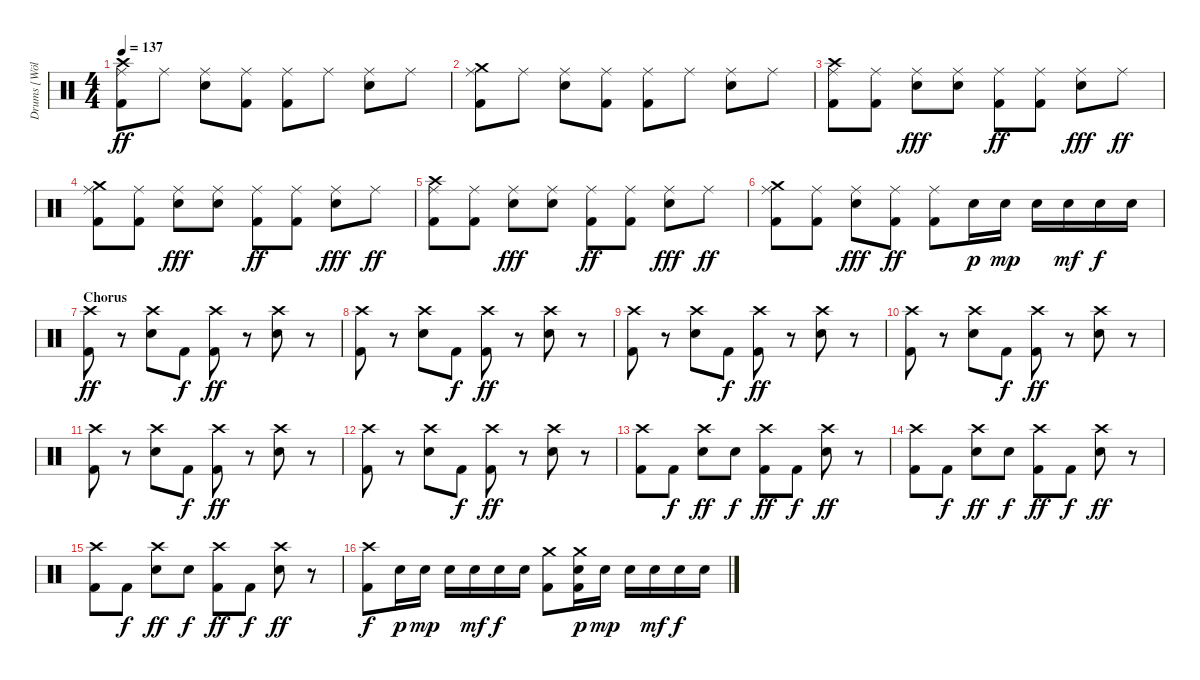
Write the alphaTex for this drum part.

\track ("Drums [Wölli]" "Drums [Wöl") {instrument percussion}
\staff {score}
\articulation defaults
\ts (4 4)
\tempo 137
\clef neutral
\ks c
("Ride (middle)" "Kick (hit) 2" "Crash high (hit)").8{dy ff} "Ride (middle)".8 ("Ride (middle)" "Snare (hit) 2").8 ("Ride (middle)" "Kick (hit) 2").8 ("Ride (middle)" "Kick (hit) 2").8 "Ride (middle)".8 ("Ride (middle)" "Snare (hit) 2").8 "Ride (middle)".8 |
("Ride (middle)" "Kick (hit) 2" "Crash medium (hit)").8 "Ride (middle)".8 ("Ride (middle)" "Snare (hit) 2").8 ("Ride (middle)" "Kick (hit) 2").8 ("Ride (middle)" "Kick (hit) 2").8 "Ride (middle)".8 ("Ride (middle)" "Snare (hit) 2").8 "Ride (middle)".8 |
("Ride (middle)" "Kick (hit) 2" "Crash high (hit)").8 ("Ride (middle)" "Kick (hit) 2").8 ("Ride (middle)" "Snare (hit) 2").8{dy fff} ("Ride (middle)" "Snare (hit) 2").8 ("Ride (middle)" "Kick (hit) 2").8{dy ff} ("Ride (middle)" "Kick (hit) 2").8 ("Ride (middle)" "Snare (hit) 2").8{dy fff} "Ride (middle)".8{dy ff} |
("Ride (middle)" "Kick (hit) 2" "Crash medium (hit)").8 ("Ride (middle)" "Kick (hit) 2").8 ("Ride (middle)" "Snare (hit) 2").8{dy fff} ("Ride (middle)" "Snare (hit) 2").8 ("Ride (middle)" "Kick (hit) 2").8{dy ff} ("Ride (middle)" "Kick (hit) 2").8 ("Ride (middle)" "Snare (hit) 2").8{dy fff} "Ride (middle)".8{dy ff} |
("Ride (middle)" "Kick (hit) 2" "Crash high (hit)").8 ("Ride (middle)" "Kick (hit) 2").8 ("Ride (middle)" "Snare (hit) 2").8{dy fff} ("Ride (middle)" "Snare (hit) 2").8 ("Ride (middle)" "Kick (hit) 2").8{dy ff} ("Ride (middle)" "Kick (hit) 2").8 ("Ride (middle)" "Snare (hit) 2").8{dy fff} "Ride (middle)".8{dy ff} |
("Ride (middle)" "Kick (hit) 2" "Crash medium (hit)").8 ("Ride (middle)" "Kick (hit) 2").8 ("Ride (middle)" "Snare (hit) 2").8{dy fff} ("Ride (middle)" "Kick (hit) 2").8{dy ff} ("Ride (middle)" "Kick (hit) 2").8 "Snare (hit) 2".16{dy p} "Snare (hit) 2".16{dy mp} "Snare (hit) 2".16 "Snare (hit) 2".16{dy mf} "Snare (hit) 2".16{dy f} "Snare (hit) 2".16 |
\section ("" "Chorus")
("Crash high (hit)" "Kick (hit) 2").8{dy ff} r.8 ("Crash high (hit)" "Snare (hit) 2").8 "Kick (hit) 2".8{dy f} ("Crash high (hit)" "Kick (hit) 2").8{dy ff} r.8 ("Crash high (hit)" "Snare (hit) 2").8 r.8 |
("Crash high (hit)" "Kick (hit) 2").8 r.8 ("Crash high (hit)" "Snare (hit) 2").8 "Kick (hit) 2".8{dy f} ("Crash high (hit)" "Kick (hit) 2").8{dy ff} r.8 ("Crash high (hit)" "Snare (hit) 2").8 r.8 |
("Crash high (hit)" "Kick (hit) 2").8 r.8 ("Crash high (hit)" "Snare (hit) 2").8 "Kick (hit) 2".8{dy f} ("Crash high (hit)" "Kick (hit) 2").8{dy ff} r.8 ("Crash high (hit)" "Snare (hit) 2").8 r.8 |
("Crash high (hit)" "Kick (hit) 2").8 r.8 ("Crash high (hit)" "Snare (hit) 2").8 "Kick (hit) 2".8{dy f} ("Crash high (hit)" "Kick (hit) 2").8{dy ff} r.8 ("Crash high (hit)" "Snare (hit) 2").8 r.8 |
("Crash high (hit)" "Kick (hit) 2").8 r.8 ("Crash high (hit)" "Snare (hit) 2").8 "Kick (hit) 2".8{dy f} ("Crash high (hit)" "Kick (hit) 2").8{dy ff} r.8 ("Crash high (hit)" "Snare (hit) 2").8 r.8 |
("Crash high (hit)" "Kick (hit) 2").8 r.8 ("Crash high (hit)" "Snare (hit) 2").8 "Kick (hit) 2".8{dy f} ("Crash high (hit)" "Kick (hit) 2").8{dy ff} r.8 ("Crash high (hit)" "Snare (hit) 2").8 r.8 |
("Crash high (hit)" "Kick (hit) 2").8 "Kick (hit) 2".8{dy f} ("Crash high (hit)" "Snare (hit) 2").8{dy ff} "Snare (hit) 2".8{dy f} ("Crash high (hit)" "Kick (hit) 2").8{dy ff} "Kick (hit) 2".8{dy f} ("Crash high (hit)" "Snare (hit) 2").8{dy ff} r.8 |
("Crash high (hit)" "Kick (hit) 2").8 "Kick (hit) 2".8{dy f} ("Crash high (hit)" "Snare (hit) 2").8{dy ff} "Snare (hit) 2".8{dy f} ("Crash high (hit)" "Kick (hit) 2").8{dy ff} "Kick (hit) 2".8{dy f} ("Crash high (hit)" "Snare (hit) 2").8{dy ff} r.8 |
("Crash high (hit)" "Kick (hit) 2").8 "Kick (hit) 2".8{dy f} ("Crash high (hit)" "Snare (hit) 2").8{dy ff} "Snare (hit) 2".8{dy f} ("Crash high (hit)" "Kick (hit) 2").8{dy ff} "Kick (hit) 2".8{dy f} ("Crash high (hit)" "Snare (hit) 2").8{dy ff} r.8 |
("Kick (hit) 2" "Crash high (hit)").8{dy f} "Snare (hit) 2".16{dy p} "Snare (hit) 2".16{dy mp} "Snare (hit) 2".16 "Snare (hit) 2".16{dy mf} "Snare (hit) 2".16{dy f} "Snare (hit) 2".16 ("Kick (hit) 2" "Crash medium (hit)").8 ("Kick (hit) 2" "Snare (hit) 2" "Crash medium (hit)").16{dy p} "Snare (hit) 2".16{dy mp} "Snare (hit) 2".16 "Snare (hit) 2".16{dy mf} "Snare (hit) 2".16{dy f} "Snare (hit) 2".16
